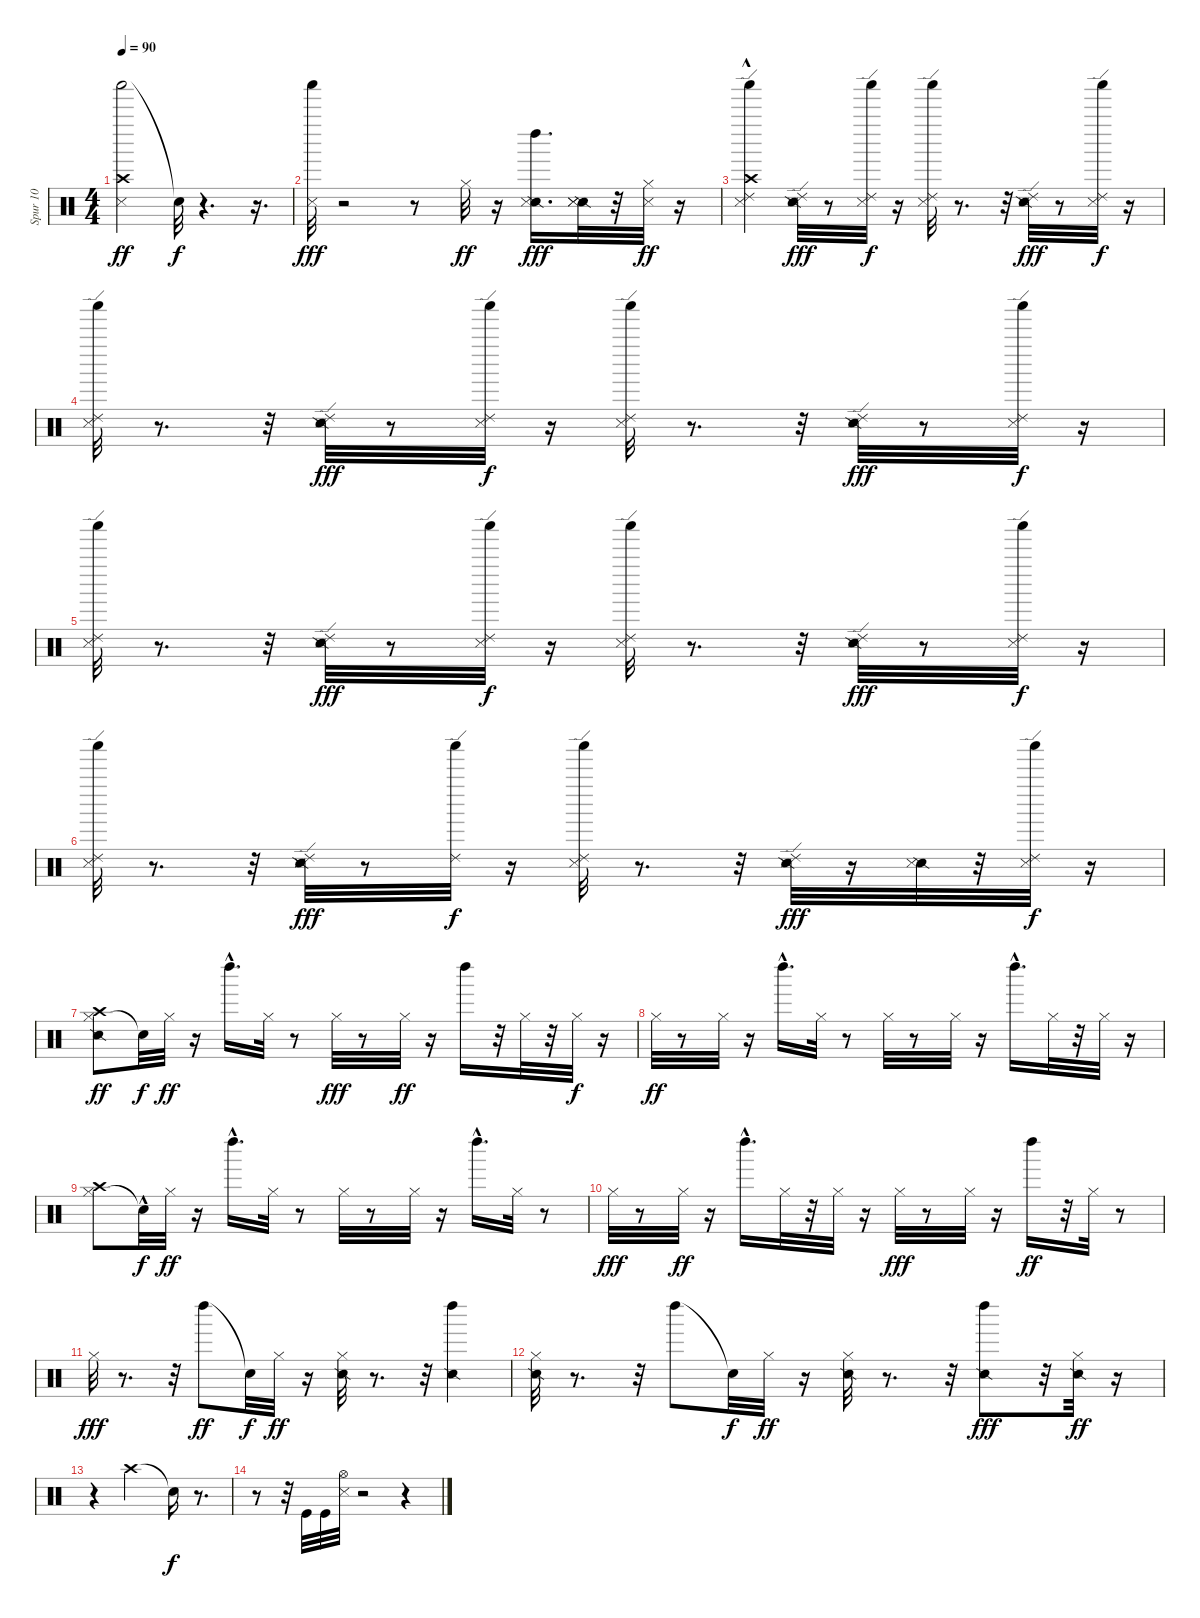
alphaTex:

\track ("Spur 10" "Spur 10") {instrument percussion}
\staff {score}
\articulation defaults
\ts (4 4)
\tempo 90
\clef neutral
\ks c
("Shaker (hit)" "Metronome (hit)" "Crash high (hit)").2{dy ff} "Snare (hit)"{t}.32{dy f} r.4{d} r.16{d} |
("Shaker (hit)" "Metronome (hit)").32{dy fff} r.2 r.8 "Hi-Hat (closed)".32{dy ff} r.16 ("Left Maraca (hit)" "Snare (side stick) 2" "Snare (side stick) 3").16{d dy fff} ("Snare (side stick) 2" "Metronome (hit)" "Snare (side stick) 3").32 r.32 ("Hi-Hat (closed)" "Metronome (hit)").32{dy ff} r.16 |
("Ride (edge) 2" "Shaker (hit)" "Metronome (hit)" "Crash high (hit)"{hac}).4 ("Ride (edge) 2" "Snare (side stick) 2" "Snare (side stick) 3").32{dy fff} r.8 ("Ride (edge) 2" "Shaker (hit)" "Metronome (hit)").32{dy f} r.16 ("Ride (edge) 2" "Shaker (hit)" "Metronome (hit)").32 r.8{d} r.32 ("Ride (edge) 2" "Snare (side stick) 2" "Snare (side stick) 3").32{dy fff} r.8 ("Ride (edge) 2" "Shaker (hit)" "Metronome (hit)").32{dy f} r.16 |
("Ride (edge) 2" "Shaker (hit)" "Metronome (hit)").32 r.8{d} r.32 ("Ride (edge) 2" "Snare (side stick) 2" "Snare (side stick) 3").32{dy fff} r.8 ("Shaker (hit)" "Ride (edge) 2" "Metronome (hit)").32{dy f} r.16 ("Ride (edge) 2" "Shaker (hit)" "Metronome (hit)").32 r.8{d} r.32 ("Ride (edge) 2" "Snare (side stick) 2" "Snare (side stick) 3").32{dy fff} r.8 ("Ride (edge) 2" "Shaker (hit)" "Metronome (hit)").32{dy f} r.16 |
("Shaker (hit)" "Ride (edge) 2" "Metronome (hit)").32 r.8{d} r.32 ("Ride (edge) 2" "Snare (side stick) 2" "Snare (side stick) 3").32{dy fff} r.8 ("Ride (edge) 2" "Shaker (hit)" "Metronome (hit)").32{dy f} r.16 ("Ride (edge) 2" "Shaker (hit)" "Metronome (hit)").32 r.8{d} r.32 ("Ride (edge) 2" "Snare (side stick) 2" "Snare (side stick) 3").32{dy fff} r.8 ("Shaker (hit)" "Ride (edge) 2" "Metronome (hit)").32{dy f} r.16 |
("Ride (edge) 2" "Shaker (hit)" "Metronome (hit)").32 r.8{d} r.32 ("Ride (edge) 2" "Snare (side stick) 2" "Metronome (hit)" "Snare (side stick) 3").32{dy fff} r.8 ("Ride (edge) 2" "Shaker (hit)").32{dy f} r.16 ("Ride (edge) 2" "Shaker (hit)" "Metronome (hit)").32 r.8{d} r.32 ("Ride (edge) 2" "Snare (side stick) 2" "Snare (side stick) 3").32{dy fff} r.16 ("Snare (side stick) 2" "Snare (side stick) 3").32 r.32 ("Ride (edge) 2" "Shaker (hit)" "Metronome (hit)").32{dy f} r.16 |
("Hi-Hat (closed)" "Snare (side stick) 2" "Crash high (hit)").8{dy ff} "Snare (hit)"{t}.32{dy f} "Hi-Hat (closed)".32{dy ff} r.16 "Left Maraca (hit)"{hac}.16{d} "Hi-Hat (closed)".32 r.8 "Hi-Hat (closed)".32{dy fff} r.8 "Hi-Hat (closed)".32{dy ff} r.16 "Left Maraca (hit)".16 r.32 "Hi-Hat (closed)".32 r.32 "Hi-Hat (closed)".32{dy f} r.16 |
"Hi-Hat (closed)".32{dy ff} r.8 "Hi-Hat (closed)".32 r.16 "Left Maraca (hit)"{hac}.16{d} "Hi-Hat (closed)".32 r.8 "Hi-Hat (closed)".32 r.8 "Hi-Hat (closed)".32 r.16 "Left Maraca (hit)"{hac}.16{d} "Hi-Hat (closed)".32 r.32 "Hi-Hat (closed)".32 r.16 |
("Hi-Hat (closed)" "Crash high (hit)").8 "Snare (hit)"{hac t}.32{dy f} "Hi-Hat (closed)".32{dy ff} r.16 "Left Maraca (hit)"{hac}.16{d} "Hi-Hat (closed)".32 r.8 "Hi-Hat (closed)".32 r.8 "Hi-Hat (closed)".32 r.16 "Left Maraca (hit)"{hac}.16{d} "Hi-Hat (closed)".32 r.8 |
"Hi-Hat (closed)".32{dy fff} r.8 "Hi-Hat (closed)".32{dy ff} r.16 "Left Maraca (hit)"{hac}.16{d} "Hi-Hat (closed)".32 r.32 "Hi-Hat (closed)".32 r.16 "Hi-Hat (closed)".32{dy fff} r.8 "Hi-Hat (closed)".32 r.16 "Left Maraca (hit)".16{dy ff} r.32 "Hi-Hat (closed)".32 r.8 |
"Hi-Hat (closed)".32{dy fff} r.8{d} r.32 "Left Maraca (hit)".8{dy ff} "Snare (hit)"{t}.32{dy f} "Hi-Hat (closed)".32{dy ff} r.16 ("Hi-Hat (closed)" "Snare (side stick) 2").32 r.8{d} r.32 ("Left Maraca (hit)" "Snare (side stick) 2").4 |
("Hi-Hat (closed)" "Snare (side stick) 2").32 r.8{d} r.32 "Left Maraca (hit)".8 "Snare (hit)"{t}.32{dy f} "Hi-Hat (closed)".32{dy ff} r.16 ("Hi-Hat (closed)" "Snare (side stick) 2").32 r.8{d} r.32 ("Left Maraca (hit)" "Snare (side stick) 2").8{dy fff} r.32 ("Hi-Hat (closed)" "Snare (side stick) 2").32{dy ff} r.16 |
r.4 "Crash high (hit)".2 "Snare (hit)"{t}.16{dy f} r.8{d} |
r.8 r.32 "Kick (hit)".32 "Kick (hit)".32 ("Hi-Hat (open)" "Metronome (hit)").32 r.2 r.4
